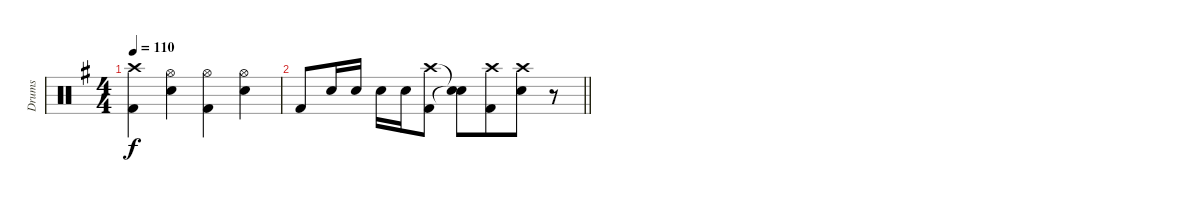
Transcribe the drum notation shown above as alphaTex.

\track ("Drums" "Drums") {instrument percussion}
\staff {score}
\articulation defaults
\ts (4 4)
\tempo 110
\clef neutral
\ks eminor
("Crash high (hit)" "Kick (hit) 2").4{dy f} ("Hi-Hat (open)" "Electric Snare (hit)").4 ("Hi-Hat (open)" "Kick (hit) 2").4 ("Hi-Hat (open)" "Electric Snare (hit)").4 |
\barLineRight lightlight "Kick (hit) 2".8 "Electric Snare (hit)".16 "Electric Snare (hit)".16 "Electric Snare (hit)".16 "Electric Snare (hit)".16
("Crash high (hit)" "Kick (hit) 2").8 ("Snare (hit)"{t} "Snare (hit)"{t}).8 ("Crash high (hit)" "Kick (hit) 2").8{beam merge} ("Crash high (hit)" "Electric Snare (hit)").8 r.8
